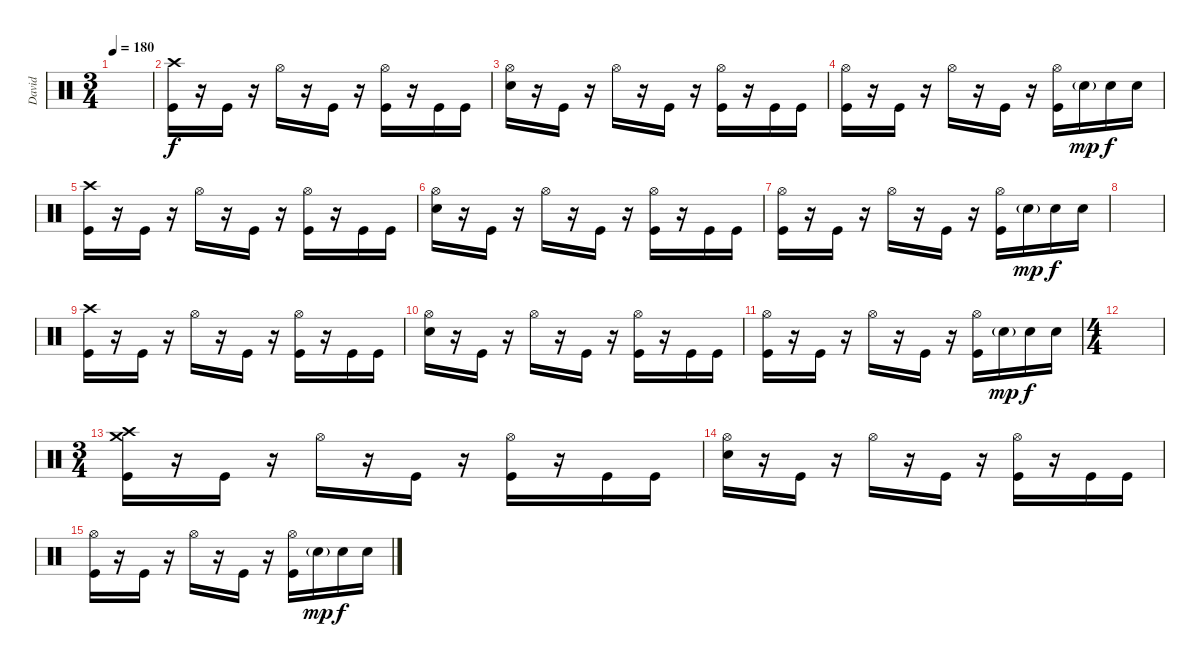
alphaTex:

\track ("David" "David") {instrument percussion}
\staff {score}
\articulation defaults
\ts (3 4)
\tempo 180
\clef neutral
\ks c
|
("Crash high (hit)" "Kick (hit)").16 r.16 "Kick (hit)".16 r.16 "Hi-Hat (open)".16 r.16 "Kick (hit)".16 r.16 ("Hi-Hat (open)" "Kick (hit)").16 r.16 "Kick (hit)".16 "Kick (hit)".16 |
("Hi-Hat (open)" "Electric Snare (hit)").16 r.16 "Kick (hit)".16 r.16 "Hi-Hat (open)".16 r.16 "Kick (hit)".16 r.16 ("Hi-Hat (open)" "Kick (hit)").16 r.16 "Kick (hit)".16 "Kick (hit)".16 |
("Hi-Hat (open)" "Kick (hit)").16 r.16 "Kick (hit)".16 r.16 "Hi-Hat (open)".16 r.16 "Kick (hit)".16 r.16 ("Hi-Hat (open)" "Kick (hit)").16 "Electric Snare (hit)"{g}.16{dy mp} "Electric Snare (hit)".16{dy f} "Electric Snare (hit)".16 |
("Crash high (hit)" "Kick (hit)").16 r.16 "Kick (hit)".16 r.16 "Hi-Hat (open)".16 r.16 "Kick (hit)".16 r.16 ("Hi-Hat (open)" "Kick (hit)").16 r.16 "Kick (hit)".16 "Kick (hit)".16 |
("Hi-Hat (open)" "Electric Snare (hit)").16 r.16 "Kick (hit)".16 r.16 "Hi-Hat (open)".16 r.16 "Kick (hit)".16 r.16 ("Hi-Hat (open)" "Kick (hit)").16 r.16 "Kick (hit)".16 "Kick (hit)".16 |
("Hi-Hat (open)" "Kick (hit)").16 r.16 "Kick (hit)".16 r.16 "Hi-Hat (open)".16 r.16 "Kick (hit)".16 r.16 ("Hi-Hat (open)" "Kick (hit)").16 "Electric Snare (hit)"{g}.16{dy mp} "Electric Snare (hit)".16{dy f} "Electric Snare (hit)".16 |
|
("Crash high (hit)" "Kick (hit)").16 r.16 "Kick (hit)".16 r.16 "Hi-Hat (open)".16 r.16 "Kick (hit)".16 r.16 ("Hi-Hat (open)" "Kick (hit)").16 r.16 "Kick (hit)".16 "Kick (hit)".16 |
("Hi-Hat (open)" "Electric Snare (hit)").16 r.16 "Kick (hit)".16 r.16 "Hi-Hat (open)".16 r.16 "Kick (hit)".16 r.16 ("Hi-Hat (open)" "Kick (hit)").16 r.16 "Kick (hit)".16 "Kick (hit)".16 |
("Hi-Hat (open)" "Kick (hit)").16 r.16 "Kick (hit)".16 r.16 "Hi-Hat (open)".16 r.16 "Kick (hit)".16 r.16 ("Hi-Hat (open)" "Kick (hit)").16 "Electric Snare (hit)"{g}.16{dy mp} "Electric Snare (hit)".16{dy f} "Electric Snare (hit)".16 |
\ts (4 4)
|
\ts (3 4)
("Crash high (hit)" "Crash medium (hit)" "Kick (hit)").16 r.16 "Kick (hit)".16 r.16 "Hi-Hat (open)".16 r.16 "Kick (hit)".16 r.16 ("Hi-Hat (open)" "Kick (hit)").16 r.16 "Kick (hit)".16 "Kick (hit)".16 |
("Hi-Hat (open)" "Electric Snare (hit)").16 r.16 "Kick (hit)".16 r.16 "Hi-Hat (open)".16 r.16 "Kick (hit)".16 r.16 ("Hi-Hat (open)" "Kick (hit)").16 r.16 "Kick (hit)".16 "Kick (hit)".16 |
("Hi-Hat (open)" "Kick (hit)").16 r.16 "Kick (hit)".16 r.16 "Hi-Hat (open)".16 r.16 "Kick (hit)".16 r.16 ("Hi-Hat (open)" "Kick (hit)").16 "Electric Snare (hit)"{g}.16{dy mp} "Electric Snare (hit)".16{dy f} "Electric Snare (hit)".16
